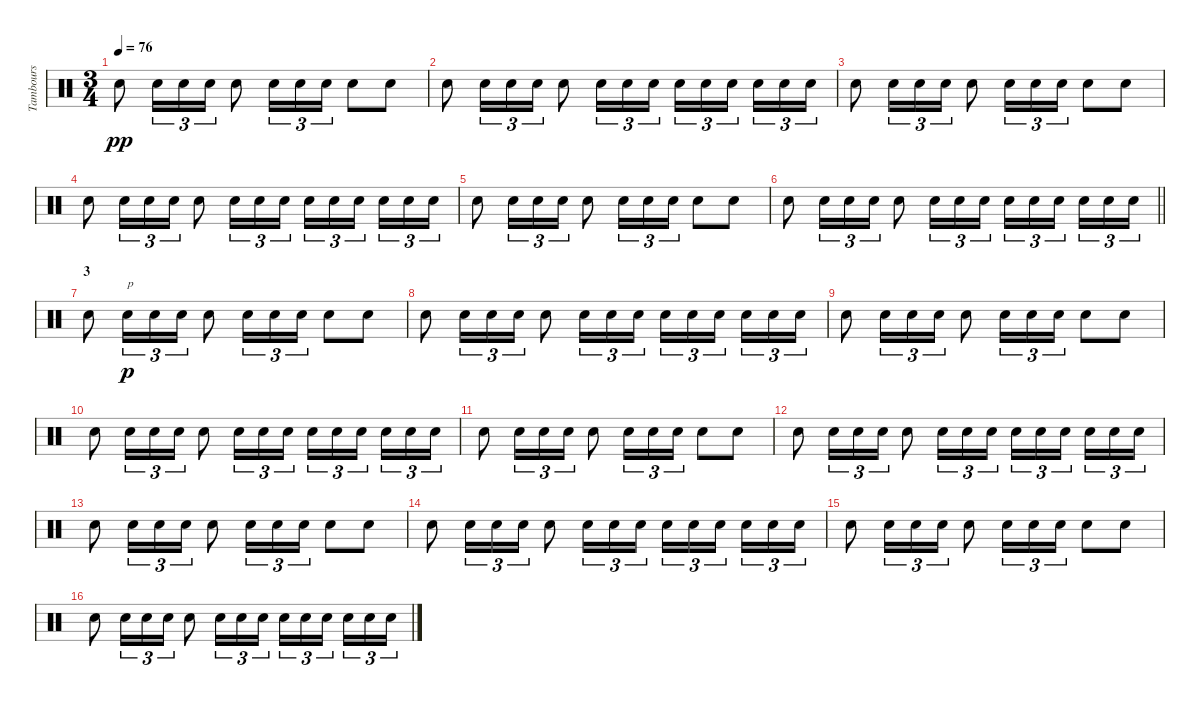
\track ("Tambours" "Tambours") {instrument percussion}
\staff {score}
\articulation defaults
\ts (3 4)
\tempo 76
\clef neutral
\ks c "Snare (hit) 2".8{dy pp} "Snare (hit) 2".16{tu (3 2)} "Snare (hit) 2".16{tu (3 2)} "Snare (hit) 2".16{tu (3 2)} "Snare (hit) 2".8 "Snare (hit) 2".16{tu (3 2)} "Snare (hit) 2".16{tu (3 2)} "Snare (hit) 2".16{tu (3 2)} "Snare (hit) 2".8 "Snare (hit) 2".8
|
"Snare (hit) 2".8 "Snare (hit) 2".16{tu (3 2)} "Snare (hit) 2".16{tu (3 2)} "Snare (hit) 2".16{tu (3 2)} "Snare (hit) 2".8 "Snare (hit) 2".16{tu (3 2)} "Snare (hit) 2".16{tu (3 2)} "Snare (hit) 2".16{tu (3 2)} "Snare (hit) 2".16{tu (3 2)} "Snare (hit) 2".16{tu (3 2)} "Snare (hit) 2".16{tu (3 2) beam splitsecondary} "Snare (hit) 2".16{tu (3 2)} "Snare (hit) 2".16{tu (3 2)} "Snare (hit) 2".16{tu (3 2)} |
"Snare (hit) 2".8 "Snare (hit) 2".16{tu (3 2)} "Snare (hit) 2".16{tu (3 2)} "Snare (hit) 2".16{tu (3 2)} "Snare (hit) 2".8 "Snare (hit) 2".16{tu (3 2)} "Snare (hit) 2".16{tu (3 2)} "Snare (hit) 2".16{tu (3 2)} "Snare (hit) 2".8 "Snare (hit) 2".8 |
"Snare (hit) 2".8 "Snare (hit) 2".16{tu (3 2)} "Snare (hit) 2".16{tu (3 2)} "Snare (hit) 2".16{tu (3 2)} "Snare (hit) 2".8 "Snare (hit) 2".16{tu (3 2)} "Snare (hit) 2".16{tu (3 2)} "Snare (hit) 2".16{tu (3 2)} "Snare (hit) 2".16{tu (3 2)} "Snare (hit) 2".16{tu (3 2)} "Snare (hit) 2".16{tu (3 2) beam splitsecondary} "Snare (hit) 2".16{tu (3 2)} "Snare (hit) 2".16{tu (3 2)} "Snare (hit) 2".16{tu (3 2)} |
"Snare (hit) 2".8 "Snare (hit) 2".16{tu (3 2)} "Snare (hit) 2".16{tu (3 2)} "Snare (hit) 2".16{tu (3 2)} "Snare (hit) 2".8 "Snare (hit) 2".16{tu (3 2)} "Snare (hit) 2".16{tu (3 2)} "Snare (hit) 2".16{tu (3 2)} "Snare (hit) 2".8 "Snare (hit) 2".8 |
\barLineRight lightlight "Snare (hit) 2".8 "Snare (hit) 2".16{tu (3 2)} "Snare (hit) 2".16{tu (3 2)} "Snare (hit) 2".16{tu (3 2)} "Snare (hit) 2".8 "Snare (hit) 2".16{tu (3 2)} "Snare (hit) 2".16{tu (3 2)} "Snare (hit) 2".16{tu (3 2)} "Snare (hit) 2".16{tu (3 2)} "Snare (hit) 2".16{tu (3 2)} "Snare (hit) 2".16{tu (3 2) beam splitsecondary} "Snare (hit) 2".16{tu (3 2)} "Snare (hit) 2".16{tu (3 2)} "Snare (hit) 2".16{tu (3 2)}
|
\section ("" "3")
"Snare (hit) 2".8 "Snare (hit) 2".16{tu (3 2) txt "p" dy p} "Snare (hit) 2".16{tu (3 2)} "Snare (hit) 2".16{tu (3 2)} "Snare (hit) 2".8 "Snare (hit) 2".16{tu (3 2)} "Snare (hit) 2".16{tu (3 2)} "Snare (hit) 2".16{tu (3 2)} "Snare (hit) 2".8 "Snare (hit) 2".8 |
"Snare (hit) 2".8 "Snare (hit) 2".16{tu (3 2)} "Snare (hit) 2".16{tu (3 2)} "Snare (hit) 2".16{tu (3 2)} "Snare (hit) 2".8 "Snare (hit) 2".16{tu (3 2)} "Snare (hit) 2".16{tu (3 2)} "Snare (hit) 2".16{tu (3 2)} "Snare (hit) 2".16{tu (3 2)} "Snare (hit) 2".16{tu (3 2)} "Snare (hit) 2".16{tu (3 2) beam splitsecondary} "Snare (hit) 2".16{tu (3 2)} "Snare (hit) 2".16{tu (3 2)} "Snare (hit) 2".16{tu (3 2)} |
"Snare (hit) 2".8 "Snare (hit) 2".16{tu (3 2)} "Snare (hit) 2".16{tu (3 2)} "Snare (hit) 2".16{tu (3 2)} "Snare (hit) 2".8 "Snare (hit) 2".16{tu (3 2)} "Snare (hit) 2".16{tu (3 2)} "Snare (hit) 2".16{tu (3 2)} "Snare (hit) 2".8 "Snare (hit) 2".8 |
"Snare (hit) 2".8 "Snare (hit) 2".16{tu (3 2)} "Snare (hit) 2".16{tu (3 2)} "Snare (hit) 2".16{tu (3 2)} "Snare (hit) 2".8 "Snare (hit) 2".16{tu (3 2)} "Snare (hit) 2".16{tu (3 2)} "Snare (hit) 2".16{tu (3 2)} "Snare (hit) 2".16{tu (3 2)} "Snare (hit) 2".16{tu (3 2)} "Snare (hit) 2".16{tu (3 2) beam splitsecondary} "Snare (hit) 2".16{tu (3 2)} "Snare (hit) 2".16{tu (3 2)} "Snare (hit) 2".16{tu (3 2)} |
"Snare (hit) 2".8 "Snare (hit) 2".16{tu (3 2)} "Snare (hit) 2".16{tu (3 2)} "Snare (hit) 2".16{tu (3 2)} "Snare (hit) 2".8 "Snare (hit) 2".16{tu (3 2)} "Snare (hit) 2".16{tu (3 2)} "Snare (hit) 2".16{tu (3 2)} "Snare (hit) 2".8 "Snare (hit) 2".8 |
"Snare (hit) 2".8 "Snare (hit) 2".16{tu (3 2)} "Snare (hit) 2".16{tu (3 2)} "Snare (hit) 2".16{tu (3 2)} "Snare (hit) 2".8 "Snare (hit) 2".16{tu (3 2)} "Snare (hit) 2".16{tu (3 2)} "Snare (hit) 2".16{tu (3 2)} "Snare (hit) 2".16{tu (3 2)} "Snare (hit) 2".16{tu (3 2)} "Snare (hit) 2".16{tu (3 2) beam splitsecondary} "Snare (hit) 2".16{tu (3 2)} "Snare (hit) 2".16{tu (3 2)} "Snare (hit) 2".16{tu (3 2)} |
"Snare (hit) 2".8 "Snare (hit) 2".16{tu (3 2)} "Snare (hit) 2".16{tu (3 2)} "Snare (hit) 2".16{tu (3 2)} "Snare (hit) 2".8 "Snare (hit) 2".16{tu (3 2)} "Snare (hit) 2".16{tu (3 2)} "Snare (hit) 2".16{tu (3 2)} "Snare (hit) 2".8 "Snare (hit) 2".8 |
"Snare (hit) 2".8 "Snare (hit) 2".16{tu (3 2)} "Snare (hit) 2".16{tu (3 2)} "Snare (hit) 2".16{tu (3 2)} "Snare (hit) 2".8 "Snare (hit) 2".16{tu (3 2)} "Snare (hit) 2".16{tu (3 2)} "Snare (hit) 2".16{tu (3 2)} "Snare (hit) 2".16{tu (3 2)} "Snare (hit) 2".16{tu (3 2)} "Snare (hit) 2".16{tu (3 2) beam splitsecondary} "Snare (hit) 2".16{tu (3 2)} "Snare (hit) 2".16{tu (3 2)} "Snare (hit) 2".16{tu (3 2)} |
"Snare (hit) 2".8 "Snare (hit) 2".16{tu (3 2)} "Snare (hit) 2".16{tu (3 2)} "Snare (hit) 2".16{tu (3 2)} "Snare (hit) 2".8 "Snare (hit) 2".16{tu (3 2)} "Snare (hit) 2".16{tu (3 2)} "Snare (hit) 2".16{tu (3 2)} "Snare (hit) 2".8 "Snare (hit) 2".8 |
"Snare (hit) 2".8 "Snare (hit) 2".16{tu (3 2)} "Snare (hit) 2".16{tu (3 2)} "Snare (hit) 2".16{tu (3 2)} "Snare (hit) 2".8 "Snare (hit) 2".16{tu (3 2)} "Snare (hit) 2".16{tu (3 2)} "Snare (hit) 2".16{tu (3 2)} "Snare (hit) 2".16{tu (3 2)} "Snare (hit) 2".16{tu (3 2)} "Snare (hit) 2".16{tu (3 2) beam splitsecondary} "Snare (hit) 2".16{tu (3 2)} "Snare (hit) 2".16{tu (3 2)} "Snare (hit) 2".16{tu (3 2)}
